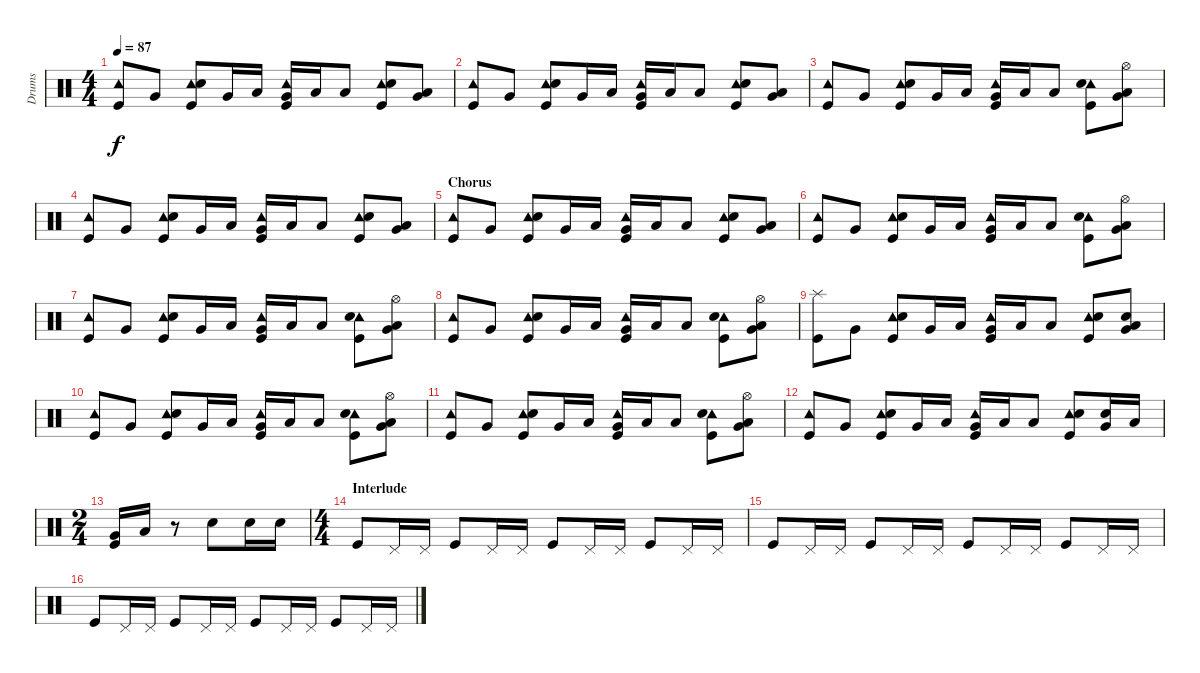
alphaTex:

\track ("Drums" "Drums") {instrument percussion}
\staff {score}
\articulation defaults
\ts (4 4)
\tempo 87
\clef neutral
\ks c
("Tambourine (hit)" "Kick (hit)").8{dy f} "Very Low Tom (hit)".8 ("Tambourine (hit)" "Snare (hit) 2" "Kick (hit)").8 "Very Low Tom (hit)".16 "Low Tom (hit)".16 ("Tambourine (hit)" "Very Low Tom (hit)" "Kick (hit)").16 "Low Tom (hit)".16 "Low Floor Tom (hit)".8 ("Tambourine (hit)" "Snare (hit) 2" "Kick (hit)").8 ("Low Tom (hit)" "Very Low Tom (hit)").8 |
("Tambourine (hit)" "Kick (hit)").8 "Very Low Tom (hit)".8 ("Tambourine (hit)" "Snare (hit) 2" "Kick (hit)").8 "Very Low Tom (hit)".16 "Low Tom (hit)".16 ("Tambourine (hit)" "Very Low Tom (hit)" "Kick (hit)").16 "Low Tom (hit)".16 "Low Floor Tom (hit)".8 ("Tambourine (hit)" "Snare (hit) 2" "Kick (hit)").8 ("Low Tom (hit)" "Very Low Tom (hit)").8 |
("Tambourine (hit)" "Kick (hit)").8 "Very Low Tom (hit)".8 ("Tambourine (hit)" "Snare (hit) 2" "Kick (hit)").8 "Very Low Tom (hit)".16 "Low Tom (hit)".16 ("Tambourine (hit)" "Very Low Tom (hit)" "Kick (hit)").16 "Low Tom (hit)".16 "Low Floor Tom (hit)".8 ("Tambourine (hit)" "Snare (hit) 2" "Kick (hit)").8 ("Hi-Hat (open)" "Low Tom (hit)" "Very Low Tom (hit)").8 |
("Tambourine (hit)" "Kick (hit)").8 "Very Low Tom (hit)".8 ("Tambourine (hit)" "Snare (hit) 2" "Kick (hit)").8 "Very Low Tom (hit)".16 "Low Tom (hit)".16 ("Tambourine (hit)" "Very Low Tom (hit)" "Kick (hit)").16 "Low Tom (hit)".16 "Low Floor Tom (hit)".8 ("Tambourine (hit)" "Snare (hit) 2" "Kick (hit)").8 ("Low Tom (hit)" "Very Low Tom (hit)").8 |
\section ("" "Chorus")
("Tambourine (hit)" "Kick (hit)").8 "Very Low Tom (hit)".8 ("Tambourine (hit)" "Snare (hit) 2" "Kick (hit)").8 "Very Low Tom (hit)".16 "Low Tom (hit)".16 ("Tambourine (hit)" "Very Low Tom (hit)" "Kick (hit)").16 "Low Tom (hit)".16 "Low Floor Tom (hit)".8 ("Tambourine (hit)" "Snare (hit) 2" "Kick (hit)").8 ("Low Tom (hit)" "Very Low Tom (hit)").8 |
("Tambourine (hit)" "Kick (hit)").8 "Very Low Tom (hit)".8 ("Tambourine (hit)" "Snare (hit) 2" "Kick (hit)").8 "Very Low Tom (hit)".16 "Low Tom (hit)".16 ("Tambourine (hit)" "Very Low Tom (hit)" "Kick (hit)").16 "Low Tom (hit)".16 "Low Floor Tom (hit)".8 ("Tambourine (hit)" "Snare (hit) 2" "Kick (hit)").8 ("Hi-Hat (open)" "Low Tom (hit)" "Very Low Tom (hit)").8 |
("Tambourine (hit)" "Kick (hit)").8 "Very Low Tom (hit)".8 ("Tambourine (hit)" "Snare (hit) 2" "Kick (hit)").8 "Very Low Tom (hit)".16 "Low Tom (hit)".16 ("Tambourine (hit)" "Very Low Tom (hit)" "Kick (hit)").16 "Low Tom (hit)".16 "Low Floor Tom (hit)".8 ("Tambourine (hit)" "Snare (hit) 2" "Kick (hit)").8 ("Hi-Hat (open)" "Low Tom (hit)" "Very Low Tom (hit)").8 |
("Tambourine (hit)" "Kick (hit)").8 "Very Low Tom (hit)".8 ("Tambourine (hit)" "Snare (hit) 2" "Kick (hit)").8 "Very Low Tom (hit)".16 "Low Tom (hit)".16 ("Tambourine (hit)" "Very Low Tom (hit)" "Kick (hit)").16 "Low Tom (hit)".16 "Low Floor Tom (hit)".8 ("Tambourine (hit)" "Snare (hit) 2" "Kick (hit)").8 ("Hi-Hat (open)" "Low Tom (hit)" "Very Low Tom (hit)").8 |
("Splash (hit)" "Kick (hit)").8 "Very Low Tom (hit)".8 ("Tambourine (hit)" "Snare (hit) 2" "Kick (hit)").8 "Very Low Tom (hit)".16 "Low Tom (hit)".16 ("Tambourine (hit)" "Very Low Tom (hit)" "Kick (hit)").16 "Low Tom (hit)".16 "Low Floor Tom (hit)".8 ("Tambourine (hit)" "Snare (hit) 2" "Kick (hit)").8 ("Snare (hit) 2" "Low Tom (hit)" "Very Low Tom (hit)").8 |
("Tambourine (hit)" "Kick (hit)").8 "Very Low Tom (hit)".8 ("Tambourine (hit)" "Snare (hit) 2" "Kick (hit)").8 "Very Low Tom (hit)".16 "Low Tom (hit)".16 ("Tambourine (hit)" "Very Low Tom (hit)" "Kick (hit)").16 "Low Tom (hit)".16 "Low Floor Tom (hit)".8 ("Tambourine (hit)" "Snare (hit) 2" "Kick (hit)").8 ("Hi-Hat (open)" "Low Tom (hit)" "Very Low Tom (hit)").8 |
("Tambourine (hit)" "Kick (hit)").8 "Very Low Tom (hit)".8 ("Tambourine (hit)" "Snare (hit) 2" "Kick (hit)").8 "Very Low Tom (hit)".16 "Low Tom (hit)".16 ("Tambourine (hit)" "Very Low Tom (hit)" "Kick (hit)").16 "Low Tom (hit)".16 "Low Floor Tom (hit)".8 ("Tambourine (hit)" "Snare (hit) 2" "Kick (hit)").8 ("Hi-Hat (open)" "Low Tom (hit)" "Very Low Tom (hit)").8 |
("Tambourine (hit)" "Kick (hit)").8 "Very Low Tom (hit)".8 ("Tambourine (hit)" "Snare (hit) 2" "Kick (hit)").8 "Very Low Tom (hit)".16 "Low Tom (hit)".16 ("Tambourine (hit)" "Very Low Tom (hit)" "Kick (hit)").16 "Low Tom (hit)".16 "Low Floor Tom (hit)".8 ("Tambourine (hit)" "Snare (hit) 2" "Kick (hit)").8 ("Snare (hit) 2" "Very Low Tom (hit)").16 "Low Tom (hit)".16 |
\ts (2 4)
("Very Low Tom (hit)" "Kick (hit)").16 "Low Tom (hit)".16 r.8 "Snare (hit) 2".8 "Snare (hit) 2".16 "Snare (hit) 2".16 |
\ts (4 4)
\section ("" "Interlude")
"Kick (hit)".8 "Pedal Hi-Hat (hit)".16 "Pedal Hi-Hat (hit)".16 "Kick (hit)".8 "Pedal Hi-Hat (hit)".16 "Pedal Hi-Hat (hit)".16 "Kick (hit)".8 "Pedal Hi-Hat (hit)".16 "Pedal Hi-Hat (hit)".16 "Kick (hit)".8 "Pedal Hi-Hat (hit)".16 "Pedal Hi-Hat (hit)".16 |
"Kick (hit)".8 "Pedal Hi-Hat (hit)".16 "Pedal Hi-Hat (hit)".16 "Kick (hit)".8 "Pedal Hi-Hat (hit)".16 "Pedal Hi-Hat (hit)".16 "Kick (hit)".8 "Pedal Hi-Hat (hit)".16 "Pedal Hi-Hat (hit)".16 "Kick (hit)".8 "Pedal Hi-Hat (hit)".16 "Pedal Hi-Hat (hit)".16 |
"Kick (hit)".8 "Pedal Hi-Hat (hit)".16 "Pedal Hi-Hat (hit)".16 "Kick (hit)".8 "Pedal Hi-Hat (hit)".16 "Pedal Hi-Hat (hit)".16 "Kick (hit)".8 "Pedal Hi-Hat (hit)".16 "Pedal Hi-Hat (hit)".16 "Kick (hit)".8 "Pedal Hi-Hat (hit)".16 "Pedal Hi-Hat (hit)".16
